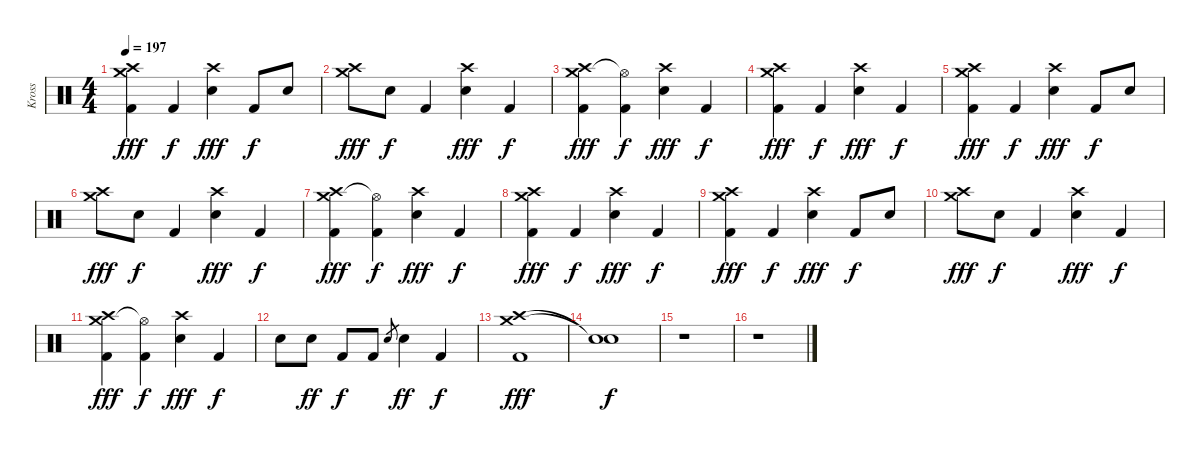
\track ("Kross" "Kross") {instrument percussion}
\staff {score}
\articulation defaults
\ts (4 4)
\tempo 197
\clef neutral
\ks c
("Crash high (hit)" "Crash medium (hit)" "Kick (hit) 2").4{dy fff} "Kick (hit) 2".4{dy f} ("Crash high (hit)" "Electric Snare (hit)").4{dy fff} "Kick (hit) 2".8{dy f} "Electric Snare (hit)".8 |
("Crash high (hit)" "Crash medium (hit)").8{dy fff} "Electric Snare (hit)".8{dy f} "Kick (hit) 2".4 ("Crash high (hit)" "Electric Snare (hit)").4{dy fff} "Kick (hit) 2".4{dy f} |
("Crash medium (hit)" "Crash high (hit)" "Kick (hit) 2").4{dy fff} ("Hi-Hat (open)"{t} "Kick (hit) 2").4{dy f} ("Crash high (hit)" "Electric Snare (hit)").4{dy fff} "Kick (hit) 2".4{dy f} |
("Crash high (hit)" "Crash medium (hit)" "Kick (hit) 2").4{dy fff} "Kick (hit) 2".4{dy f} ("Crash high (hit)" "Electric Snare (hit)").4{dy fff} "Kick (hit) 2".4{dy f} |
("Crash high (hit)" "Crash medium (hit)" "Kick (hit) 2").4{dy fff} "Kick (hit) 2".4{dy f} ("Crash high (hit)" "Electric Snare (hit)").4{dy fff} "Kick (hit) 2".8{dy f} "Electric Snare (hit)".8 |
("Crash high (hit)" "Crash medium (hit)").8{dy fff} "Electric Snare (hit)".8{dy f} "Kick (hit) 2".4 ("Crash high (hit)" "Electric Snare (hit)").4{dy fff} "Kick (hit) 2".4{dy f} |
("Crash medium (hit)" "Crash high (hit)" "Kick (hit) 2").4{dy fff} ("Hi-Hat (open)"{t} "Kick (hit) 2").4{dy f} ("Crash high (hit)" "Electric Snare (hit)").4{dy fff} "Kick (hit) 2".4{dy f} |
("Crash high (hit)" "Crash medium (hit)" "Kick (hit) 2").4{dy fff} "Kick (hit) 2".4{dy f} ("Crash high (hit)" "Electric Snare (hit)").4{dy fff} "Kick (hit) 2".4{dy f} |
("Crash high (hit)" "Crash medium (hit)" "Kick (hit) 2").4{dy fff} "Kick (hit) 2".4{dy f} ("Crash high (hit)" "Electric Snare (hit)").4{dy fff} "Kick (hit) 2".8{dy f} "Electric Snare (hit)".8 |
("Crash high (hit)" "Crash medium (hit)").8{dy fff} "Electric Snare (hit)".8{dy f} "Kick (hit) 2".4 ("Crash high (hit)" "Electric Snare (hit)").4{dy fff} "Kick (hit) 2".4{dy f} |
("Crash medium (hit)" "Crash high (hit)" "Kick (hit) 2").4{dy fff} ("Hi-Hat (open)"{t} "Kick (hit) 2").4{dy f} ("Crash high (hit)" "Electric Snare (hit)").4{dy fff} "Kick (hit) 2".4{dy f} |
"Electric Snare (hit)".8 "Electric Snare (hit)".8{dy ff} "Kick (hit) 2".8{dy f} "Kick (hit) 2".8 "Electric Snare (hit)".8{gr} "Electric Snare (hit)".4{dy ff} "Kick (hit) 2".4{dy f} |
("Crash high (hit)" "Crash medium (hit)" "Kick (hit) 2").1{dy fff} |
("Snare (hit)"{t} "Snare (hit)"{t}).1{dy f} |
r.1 |
r.1
